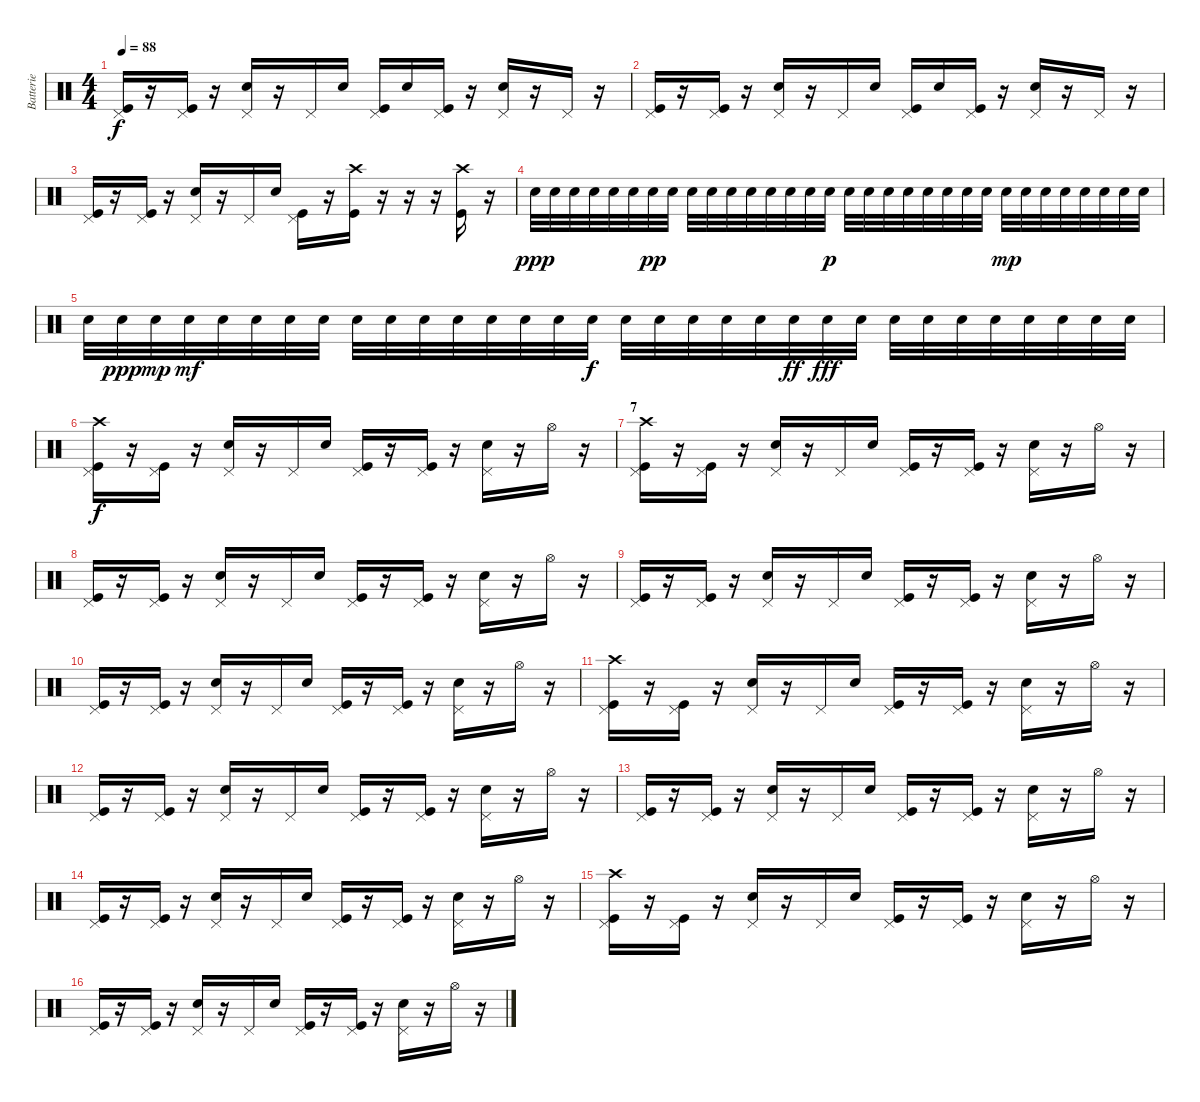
\track ("Batterie" "Batterie") {instrument percussion}
\staff {score}
\articulation defaults
\ts (4 4)
\tempo 88
\clef neutral
\ks c
("Pedal Hi-Hat (hit)" "Kick (hit)").16{dy f} r.16 ("Pedal Hi-Hat (hit)" "Kick (hit)").16 r.16 ("Pedal Hi-Hat (hit)" "Electric Snare (hit)").16 r.16 "Pedal Hi-Hat (hit)".16 "Electric Snare (hit)".16 ("Pedal Hi-Hat (hit)" "Kick (hit)").16 "Electric Snare (hit)".16 ("Pedal Hi-Hat (hit)" "Kick (hit)").16 r.16 ("Pedal Hi-Hat (hit)" "Electric Snare (hit)").16 r.16 "Pedal Hi-Hat (hit)".16 r.16 |
("Pedal Hi-Hat (hit)" "Kick (hit)").16 r.16 ("Pedal Hi-Hat (hit)" "Kick (hit)").16 r.16 ("Pedal Hi-Hat (hit)" "Electric Snare (hit)").16 r.16 "Pedal Hi-Hat (hit)".16 "Electric Snare (hit)".16 ("Pedal Hi-Hat (hit)" "Kick (hit)").16 "Electric Snare (hit)".16 ("Pedal Hi-Hat (hit)" "Kick (hit)").16 r.16 ("Pedal Hi-Hat (hit)" "Electric Snare (hit)").16 r.16 "Pedal Hi-Hat (hit)".16 r.16 |
("Pedal Hi-Hat (hit)" "Kick (hit)").16 r.16 ("Pedal Hi-Hat (hit)" "Kick (hit)").16 r.16 ("Pedal Hi-Hat (hit)" "Electric Snare (hit)").16 r.16 "Pedal Hi-Hat (hit)".16 "Electric Snare (hit)".16 ("Pedal Hi-Hat (hit)" "Kick (hit)").16 r.16 ("Crash high (hit)" "Kick (hit)").16 r.16 r.16 r.16 ("Crash high (hit)" "Kick (hit)").16 r.16 |
"Electric Snare (hit)".32{dy ppp} "Electric Snare (hit)".32 "Electric Snare (hit)".32 "Electric Snare (hit)".32 "Electric Snare (hit)".32 "Electric Snare (hit)".32 "Electric Snare (hit)".32{dy pp} "Electric Snare (hit)".32 "Electric Snare (hit)".32 "Electric Snare (hit)".32 "Electric Snare (hit)".32 "Electric Snare (hit)".32 "Electric Snare (hit)".32 "Electric Snare (hit)".32 "Electric Snare (hit)".32 "Electric Snare (hit)".32{dy p} "Electric Snare (hit)".32 "Electric Snare (hit)".32 "Electric Snare (hit)".32 "Electric Snare (hit)".32 "Electric Snare (hit)".32 "Electric Snare (hit)".32 "Electric Snare (hit)".32 "Electric Snare (hit)".32 "Electric Snare (hit)".32{dy mp} "Electric Snare (hit)".32 "Electric Snare (hit)".32 "Electric Snare (hit)".32 "Electric Snare (hit)".32 "Electric Snare (hit)".32 "Electric Snare (hit)".32 "Electric Snare (hit)".32 |
"Electric Snare (hit)".32 "Electric Snare (hit)".32{dy ppp} "Electric Snare (hit)".32{dy mp} "Electric Snare (hit)".32{dy mf} "Electric Snare (hit)".32 "Electric Snare (hit)".32 "Electric Snare (hit)".32 "Electric Snare (hit)".32 "Electric Snare (hit)".32 "Electric Snare (hit)".32 "Electric Snare (hit)".32 "Electric Snare (hit)".32 "Electric Snare (hit)".32 "Electric Snare (hit)".32 "Electric Snare (hit)".32 "Electric Snare (hit)".32{dy f} "Electric Snare (hit)".32 "Electric Snare (hit)".32 "Electric Snare (hit)".32 "Electric Snare (hit)".32 "Electric Snare (hit)".32 "Electric Snare (hit)".32{dy ff} "Electric Snare (hit)".32{dy fff} "Electric Snare (hit)".32 "Electric Snare (hit)".32 "Electric Snare (hit)".32 "Electric Snare (hit)".32 "Electric Snare (hit)".32 "Electric Snare (hit)".32 "Electric Snare (hit)".32 "Electric Snare (hit)".32 "Electric Snare (hit)".32 |
("Pedal Hi-Hat (hit)" "Crash high (hit)" "Kick (hit)").16{dy f} r.16 ("Pedal Hi-Hat (hit)" "Kick (hit)").16 r.16 ("Pedal Hi-Hat (hit)" "Electric Snare (hit)").16 r.16 "Pedal Hi-Hat (hit)".16 "Electric Snare (hit)".16 ("Pedal Hi-Hat (hit)" "Kick (hit)").16 r.16 ("Pedal Hi-Hat (hit)" "Kick (hit)").16 r.16 ("Pedal Hi-Hat (hit)" "Electric Snare (hit)").16 r.16 "Hi-Hat (open)".16 r.16 |
\section ("" "7")
("Pedal Hi-Hat (hit)" "Crash high (hit)" "Kick (hit)").16 r.16 ("Pedal Hi-Hat (hit)" "Kick (hit)").16 r.16 ("Pedal Hi-Hat (hit)" "Electric Snare (hit)").16 r.16 "Pedal Hi-Hat (hit)".16 "Electric Snare (hit)".16 ("Pedal Hi-Hat (hit)" "Kick (hit)").16 r.16 ("Pedal Hi-Hat (hit)" "Kick (hit)").16 r.16 ("Pedal Hi-Hat (hit)" "Electric Snare (hit)").16 r.16 "Hi-Hat (open)".16 r.16 |
("Pedal Hi-Hat (hit)" "Kick (hit)").16 r.16 ("Pedal Hi-Hat (hit)" "Kick (hit)").16 r.16 ("Pedal Hi-Hat (hit)" "Electric Snare (hit)").16 r.16 "Pedal Hi-Hat (hit)".16 "Electric Snare (hit)".16 ("Pedal Hi-Hat (hit)" "Kick (hit)").16 r.16 ("Pedal Hi-Hat (hit)" "Kick (hit)").16 r.16 ("Pedal Hi-Hat (hit)" "Electric Snare (hit)").16 r.16 "Hi-Hat (open)".16 r.16 |
("Pedal Hi-Hat (hit)" "Kick (hit)").16 r.16 ("Pedal Hi-Hat (hit)" "Kick (hit)").16 r.16 ("Pedal Hi-Hat (hit)" "Electric Snare (hit)").16 r.16 "Pedal Hi-Hat (hit)".16 "Electric Snare (hit)".16 ("Pedal Hi-Hat (hit)" "Kick (hit)").16 r.16 ("Pedal Hi-Hat (hit)" "Kick (hit)").16 r.16 ("Pedal Hi-Hat (hit)" "Electric Snare (hit)").16 r.16 "Hi-Hat (open)".16 r.16 |
("Pedal Hi-Hat (hit)" "Kick (hit)").16 r.16 ("Pedal Hi-Hat (hit)" "Kick (hit)").16 r.16 ("Pedal Hi-Hat (hit)" "Electric Snare (hit)").16 r.16 "Pedal Hi-Hat (hit)".16 "Electric Snare (hit)".16 ("Pedal Hi-Hat (hit)" "Kick (hit)").16 r.16 ("Pedal Hi-Hat (hit)" "Kick (hit)").16 r.16 ("Pedal Hi-Hat (hit)" "Electric Snare (hit)").16 r.16 "Hi-Hat (open)".16 r.16 |
("Pedal Hi-Hat (hit)" "Crash high (hit)" "Kick (hit)").16 r.16 ("Pedal Hi-Hat (hit)" "Kick (hit)").16 r.16 ("Pedal Hi-Hat (hit)" "Electric Snare (hit)").16 r.16 "Pedal Hi-Hat (hit)".16 "Electric Snare (hit)".16 ("Pedal Hi-Hat (hit)" "Kick (hit)").16 r.16 ("Pedal Hi-Hat (hit)" "Kick (hit)").16 r.16 ("Pedal Hi-Hat (hit)" "Electric Snare (hit)").16 r.16 "Hi-Hat (open)".16 r.16 |
("Pedal Hi-Hat (hit)" "Kick (hit)").16 r.16 ("Pedal Hi-Hat (hit)" "Kick (hit)").16 r.16 ("Pedal Hi-Hat (hit)" "Electric Snare (hit)").16 r.16 "Pedal Hi-Hat (hit)".16 "Electric Snare (hit)".16 ("Pedal Hi-Hat (hit)" "Kick (hit)").16 r.16 ("Pedal Hi-Hat (hit)" "Kick (hit)").16 r.16 ("Pedal Hi-Hat (hit)" "Electric Snare (hit)").16 r.16 "Hi-Hat (open)".16 r.16 |
("Pedal Hi-Hat (hit)" "Kick (hit)").16 r.16 ("Pedal Hi-Hat (hit)" "Kick (hit)").16 r.16 ("Pedal Hi-Hat (hit)" "Electric Snare (hit)").16 r.16 "Pedal Hi-Hat (hit)".16 "Electric Snare (hit)".16 ("Pedal Hi-Hat (hit)" "Kick (hit)").16 r.16 ("Pedal Hi-Hat (hit)" "Kick (hit)").16 r.16 ("Pedal Hi-Hat (hit)" "Electric Snare (hit)").16 r.16 "Hi-Hat (open)".16 r.16 |
("Pedal Hi-Hat (hit)" "Kick (hit)").16 r.16 ("Pedal Hi-Hat (hit)" "Kick (hit)").16 r.16 ("Pedal Hi-Hat (hit)" "Electric Snare (hit)").16 r.16 "Pedal Hi-Hat (hit)".16 "Electric Snare (hit)".16 ("Pedal Hi-Hat (hit)" "Kick (hit)").16 r.16 ("Pedal Hi-Hat (hit)" "Kick (hit)").16 r.16 ("Pedal Hi-Hat (hit)" "Electric Snare (hit)").16 r.16 "Hi-Hat (open)".16 r.16 |
("Pedal Hi-Hat (hit)" "Crash high (hit)" "Kick (hit)").16 r.16 ("Pedal Hi-Hat (hit)" "Kick (hit)").16 r.16 ("Pedal Hi-Hat (hit)" "Electric Snare (hit)").16 r.16 "Pedal Hi-Hat (hit)".16 "Electric Snare (hit)".16 ("Pedal Hi-Hat (hit)" "Kick (hit)").16 r.16 ("Pedal Hi-Hat (hit)" "Kick (hit)").16 r.16 ("Pedal Hi-Hat (hit)" "Electric Snare (hit)").16 r.16 "Hi-Hat (open)".16 r.16 |
("Pedal Hi-Hat (hit)" "Kick (hit)").16 r.16 ("Pedal Hi-Hat (hit)" "Kick (hit)").16 r.16 ("Pedal Hi-Hat (hit)" "Electric Snare (hit)").16 r.16 "Pedal Hi-Hat (hit)".16 "Electric Snare (hit)".16 ("Pedal Hi-Hat (hit)" "Kick (hit)").16 r.16 ("Pedal Hi-Hat (hit)" "Kick (hit)").16 r.16 ("Pedal Hi-Hat (hit)" "Electric Snare (hit)").16 r.16 "Hi-Hat (open)".16 r.16
